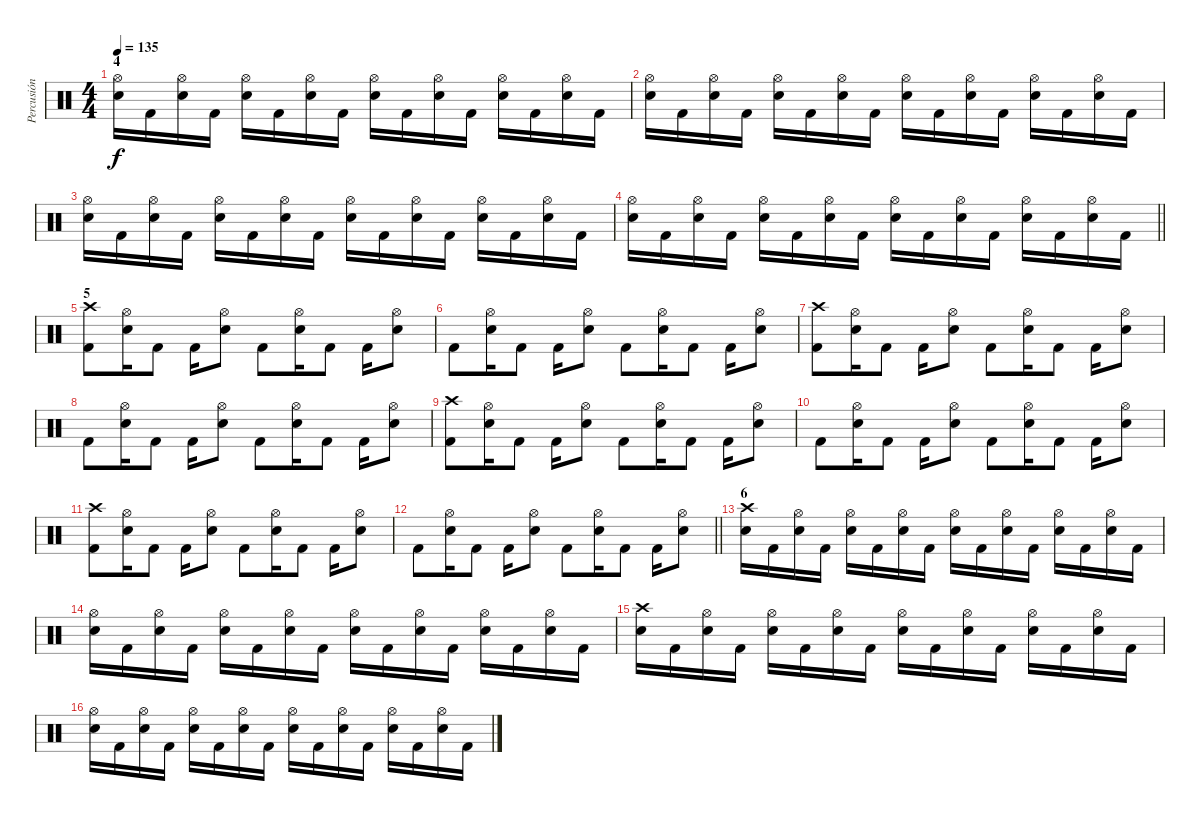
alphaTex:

\track ("Percusión" "Percusión") {instrument percussion}
\staff {score}
\articulation defaults
\ts (4 4)
\section ("" "4")
\tempo 135
\clef neutral
\ks c
("Hi-Hat (open)" "Snare (hit) 2").16{dy f} "Kick (hit) 2".16 ("Hi-Hat (open)" "Snare (hit) 2").16 "Kick (hit) 2".16 ("Hi-Hat (open)" "Snare (hit) 2").16 "Kick (hit) 2".16 ("Hi-Hat (open)" "Snare (hit) 2").16 "Kick (hit) 2".16 ("Hi-Hat (open)" "Snare (hit) 2").16 "Kick (hit) 2".16 ("Hi-Hat (open)" "Snare (hit) 2").16 "Kick (hit) 2".16 ("Hi-Hat (open)" "Snare (hit) 2").16 "Kick (hit) 2".16 ("Hi-Hat (open)" "Snare (hit) 2").16 "Kick (hit) 2".16 |
("Hi-Hat (open)" "Snare (hit) 2").16 "Kick (hit) 2".16 ("Hi-Hat (open)" "Snare (hit) 2").16 "Kick (hit) 2".16 ("Hi-Hat (open)" "Snare (hit) 2").16 "Kick (hit) 2".16 ("Hi-Hat (open)" "Snare (hit) 2").16 "Kick (hit) 2".16 ("Hi-Hat (open)" "Snare (hit) 2").16 "Kick (hit) 2".16 ("Hi-Hat (open)" "Snare (hit) 2").16 "Kick (hit) 2".16 ("Hi-Hat (open)" "Snare (hit) 2").16 "Kick (hit) 2".16 ("Hi-Hat (open)" "Snare (hit) 2").16 "Kick (hit) 2".16 |
("Hi-Hat (open)" "Snare (hit) 2").16 "Kick (hit) 2".16 ("Hi-Hat (open)" "Snare (hit) 2").16 "Kick (hit) 2".16 ("Hi-Hat (open)" "Snare (hit) 2").16 "Kick (hit) 2".16 ("Hi-Hat (open)" "Snare (hit) 2").16 "Kick (hit) 2".16 ("Hi-Hat (open)" "Snare (hit) 2").16 "Kick (hit) 2".16 ("Hi-Hat (open)" "Snare (hit) 2").16 "Kick (hit) 2".16 ("Hi-Hat (open)" "Snare (hit) 2").16 "Kick (hit) 2".16 ("Hi-Hat (open)" "Snare (hit) 2").16 "Kick (hit) 2".16 |
\barLineRight lightlight
("Hi-Hat (open)" "Snare (hit) 2").16 "Kick (hit) 2".16 ("Hi-Hat (open)" "Snare (hit) 2").16 "Kick (hit) 2".16 ("Hi-Hat (open)" "Snare (hit) 2").16 "Kick (hit) 2".16 ("Hi-Hat (open)" "Snare (hit) 2").16 "Kick (hit) 2".16 ("Hi-Hat (open)" "Snare (hit) 2").16 "Kick (hit) 2".16 ("Hi-Hat (open)" "Snare (hit) 2").16 "Kick (hit) 2".16 ("Hi-Hat (open)" "Snare (hit) 2").16 "Kick (hit) 2".16 ("Hi-Hat (open)" "Snare (hit) 2").16 "Kick (hit) 2".16 |
\section ("" "5")
("Crash high (hit)" "Kick (hit) 2").8 ("Hi-Hat (open)" "Snare (hit) 2").16 "Kick (hit) 2".8 "Kick (hit) 2".16 ("Hi-Hat (open)" "Snare (hit) 2").8 "Kick (hit) 2".8 ("Hi-Hat (open)" "Snare (hit) 2").16 "Kick (hit) 2".8 "Kick (hit) 2".16 ("Hi-Hat (open)" "Snare (hit) 2").8 |
"Kick (hit) 2".8 ("Hi-Hat (open)" "Snare (hit) 2").16 "Kick (hit) 2".8 "Kick (hit) 2".16 ("Hi-Hat (open)" "Snare (hit) 2").8 "Kick (hit) 2".8 ("Hi-Hat (open)" "Snare (hit) 2").16 "Kick (hit) 2".8 "Kick (hit) 2".16 ("Hi-Hat (open)" "Snare (hit) 2").8 |
("Crash high (hit)" "Kick (hit) 2").8 ("Hi-Hat (open)" "Snare (hit) 2").16 "Kick (hit) 2".8 "Kick (hit) 2".16 ("Hi-Hat (open)" "Snare (hit) 2").8 "Kick (hit) 2".8 ("Hi-Hat (open)" "Snare (hit) 2").16 "Kick (hit) 2".8 "Kick (hit) 2".16 ("Hi-Hat (open)" "Snare (hit) 2").8 |
"Kick (hit) 2".8 ("Hi-Hat (open)" "Snare (hit) 2").16 "Kick (hit) 2".8 "Kick (hit) 2".16 ("Hi-Hat (open)" "Snare (hit) 2").8 "Kick (hit) 2".8 ("Hi-Hat (open)" "Snare (hit) 2").16 "Kick (hit) 2".8 "Kick (hit) 2".16 ("Hi-Hat (open)" "Snare (hit) 2").8 |
("Crash high (hit)" "Kick (hit) 2").8 ("Hi-Hat (open)" "Snare (hit) 2").16 "Kick (hit) 2".8 "Kick (hit) 2".16 ("Hi-Hat (open)" "Snare (hit) 2").8 "Kick (hit) 2".8 ("Hi-Hat (open)" "Snare (hit) 2").16 "Kick (hit) 2".8 "Kick (hit) 2".16 ("Hi-Hat (open)" "Snare (hit) 2").8 |
"Kick (hit) 2".8 ("Hi-Hat (open)" "Snare (hit) 2").16 "Kick (hit) 2".8 "Kick (hit) 2".16 ("Hi-Hat (open)" "Snare (hit) 2").8 "Kick (hit) 2".8 ("Hi-Hat (open)" "Snare (hit) 2").16 "Kick (hit) 2".8 "Kick (hit) 2".16 ("Hi-Hat (open)" "Snare (hit) 2").8 |
("Crash high (hit)" "Kick (hit) 2").8 ("Hi-Hat (open)" "Snare (hit) 2").16 "Kick (hit) 2".8 "Kick (hit) 2".16 ("Hi-Hat (open)" "Snare (hit) 2").8 "Kick (hit) 2".8 ("Hi-Hat (open)" "Snare (hit) 2").16 "Kick (hit) 2".8 "Kick (hit) 2".16 ("Hi-Hat (open)" "Snare (hit) 2").8 |
\barLineRight lightlight "Kick (hit) 2".8
("Hi-Hat (open)" "Snare (hit) 2").16 "Kick (hit) 2".8 "Kick (hit) 2".16 ("Hi-Hat (open)" "Snare (hit) 2").8 "Kick (hit) 2".8 ("Hi-Hat (open)" "Snare (hit) 2").16 "Kick (hit) 2".8 "Kick (hit) 2".16 ("Hi-Hat (open)" "Snare (hit) 2").8 |
\section ("" "6")
("Crash high (hit)" "Snare (hit) 2").16 "Kick (hit) 2".16 ("Hi-Hat (open)" "Snare (hit) 2").16 "Kick (hit) 2".16 ("Hi-Hat (open)" "Snare (hit) 2").16 "Kick (hit) 2".16 ("Hi-Hat (open)" "Snare (hit) 2").16 "Kick (hit) 2".16 ("Hi-Hat (open)" "Snare (hit) 2").16 "Kick (hit) 2".16 ("Hi-Hat (open)" "Snare (hit) 2").16 "Kick (hit) 2".16 ("Hi-Hat (open)" "Snare (hit) 2").16 "Kick (hit) 2".16 ("Hi-Hat (open)" "Snare (hit) 2").16 "Kick (hit) 2".16 |
("Hi-Hat (open)" "Snare (hit) 2").16 "Kick (hit) 2".16 ("Hi-Hat (open)" "Snare (hit) 2").16 "Kick (hit) 2".16 ("Hi-Hat (open)" "Snare (hit) 2").16 "Kick (hit) 2".16 ("Hi-Hat (open)" "Snare (hit) 2").16 "Kick (hit) 2".16 ("Hi-Hat (open)" "Snare (hit) 2").16 "Kick (hit) 2".16 ("Hi-Hat (open)" "Snare (hit) 2").16 "Kick (hit) 2".16 ("Hi-Hat (open)" "Snare (hit) 2").16 "Kick (hit) 2".16 ("Hi-Hat (open)" "Snare (hit) 2").16 "Kick (hit) 2".16 |
("Crash high (hit)" "Snare (hit) 2").16 "Kick (hit) 2".16 ("Hi-Hat (open)" "Snare (hit) 2").16 "Kick (hit) 2".16 ("Hi-Hat (open)" "Snare (hit) 2").16 "Kick (hit) 2".16 ("Hi-Hat (open)" "Snare (hit) 2").16 "Kick (hit) 2".16 ("Hi-Hat (open)" "Snare (hit) 2").16 "Kick (hit) 2".16 ("Hi-Hat (open)" "Snare (hit) 2").16 "Kick (hit) 2".16 ("Hi-Hat (open)" "Snare (hit) 2").16 "Kick (hit) 2".16 ("Hi-Hat (open)" "Snare (hit) 2").16 "Kick (hit) 2".16 |
("Hi-Hat (open)" "Snare (hit) 2").16 "Kick (hit) 2".16 ("Hi-Hat (open)" "Snare (hit) 2").16 "Kick (hit) 2".16 ("Hi-Hat (open)" "Snare (hit) 2").16 "Kick (hit) 2".16 ("Hi-Hat (open)" "Snare (hit) 2").16 "Kick (hit) 2".16 ("Hi-Hat (open)" "Snare (hit) 2").16 "Kick (hit) 2".16 ("Hi-Hat (open)" "Snare (hit) 2").16 "Kick (hit) 2".16 ("Hi-Hat (open)" "Snare (hit) 2").16 "Kick (hit) 2".16 ("Hi-Hat (open)" "Snare (hit) 2").16 "Kick (hit) 2".16
